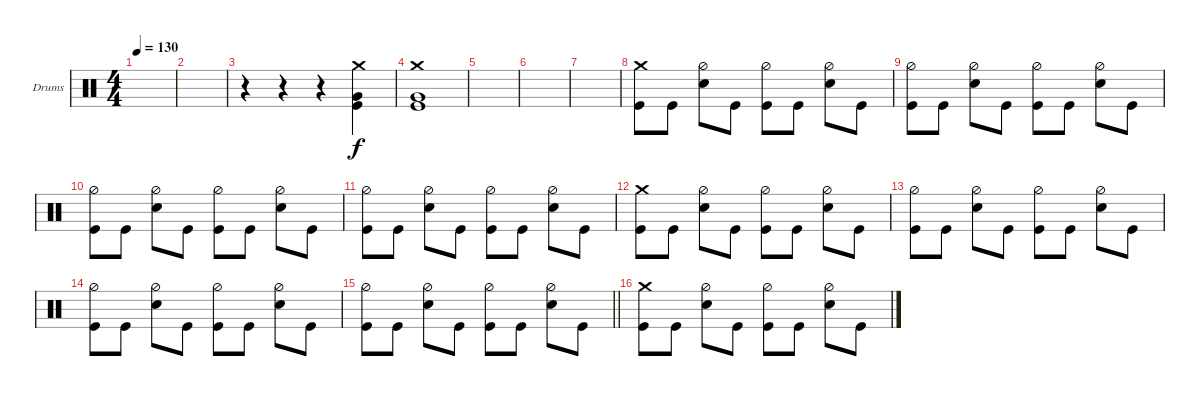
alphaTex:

\defaultSystemsLayout 4
\bracketExtendMode groupsimilarinstruments
\firstSystemTrackNameOrientation horizontal
\otherSystemsTrackNameOrientation horizontal
\track ("Drumkit" "Drums") {instrument percussion}
\staff {score}
\articulation defaults
\ts (4 4)
\tempo 130
\clef neutral
\ks aminor
|
|
r.4 r.4 r.4 ("Kick (hit)" "Very Low Tom (hit)" "Crash medium (hit)").4 |
("Kick (hit)" "Very Low Tom (hit)" "Crash medium (hit)").1 |
|
|
|
("Kick (hit)" "Crash medium (hit)").8 "Kick (hit)".8 ("Snare (hit) 2" "Hi-Hat (half)").8 "Kick (hit)".8 ("Kick (hit)" "Hi-Hat (half)").8 "Kick (hit)".8 ("Snare (hit) 2" "Hi-Hat (half)").8 "Kick (hit)".8 |
("Kick (hit)" "Hi-Hat (half)").8 "Kick (hit)".8 ("Snare (hit) 2" "Hi-Hat (half)").8 "Kick (hit)".8 ("Kick (hit)" "Hi-Hat (half)").8 "Kick (hit)".8 ("Snare (hit) 2" "Hi-Hat (half)").8 "Kick (hit)".8 |
("Kick (hit)" "Hi-Hat (half)").8 "Kick (hit)".8 ("Snare (hit) 2" "Hi-Hat (half)").8 "Kick (hit)".8 ("Kick (hit)" "Hi-Hat (half)").8 "Kick (hit)".8 ("Snare (hit) 2" "Hi-Hat (half)").8 "Kick (hit)".8 |
("Kick (hit)" "Hi-Hat (half)").8 "Kick (hit)".8 ("Snare (hit) 2" "Hi-Hat (half)").8 "Kick (hit)".8 ("Kick (hit)" "Hi-Hat (half)").8 "Kick (hit)".8 ("Snare (hit) 2" "Hi-Hat (half)").8 "Kick (hit)".8 |
("Kick (hit)" "Crash medium (hit)").8 "Kick (hit)".8 ("Snare (hit) 2" "Hi-Hat (half)").8 "Kick (hit)".8 ("Kick (hit)" "Hi-Hat (half)").8 "Kick (hit)".8 ("Snare (hit) 2" "Hi-Hat (half)").8 "Kick (hit)".8 |
("Kick (hit)" "Hi-Hat (half)").8 "Kick (hit)".8 ("Snare (hit) 2" "Hi-Hat (half)").8 "Kick (hit)".8 ("Kick (hit)" "Hi-Hat (half)").8 "Kick (hit)".8 ("Snare (hit) 2" "Hi-Hat (half)").8 "Kick (hit)".8 |
("Kick (hit)" "Hi-Hat (half)").8 "Kick (hit)".8 ("Snare (hit) 2" "Hi-Hat (half)").8 "Kick (hit)".8 ("Kick (hit)" "Hi-Hat (half)").8 "Kick (hit)".8 ("Snare (hit) 2" "Hi-Hat (half)").8 "Kick (hit)".8 |
\barLineRight lightlight
("Kick (hit)" "Hi-Hat (half)").8 "Kick (hit)".8 ("Snare (hit) 2" "Hi-Hat (half)").8 "Kick (hit)".8 ("Kick (hit)" "Hi-Hat (half)").8 "Kick (hit)".8 ("Snare (hit) 2" "Hi-Hat (half)").8 "Kick (hit)".8 |
("Kick (hit)" "Crash medium (hit)").8 "Kick (hit)".8 ("Snare (hit) 2" "Hi-Hat (half)").8 "Kick (hit)".8 ("Kick (hit)" "Hi-Hat (half)").8 "Kick (hit)".8 ("Snare (hit) 2" "Hi-Hat (half)").8 "Kick (hit)".8
